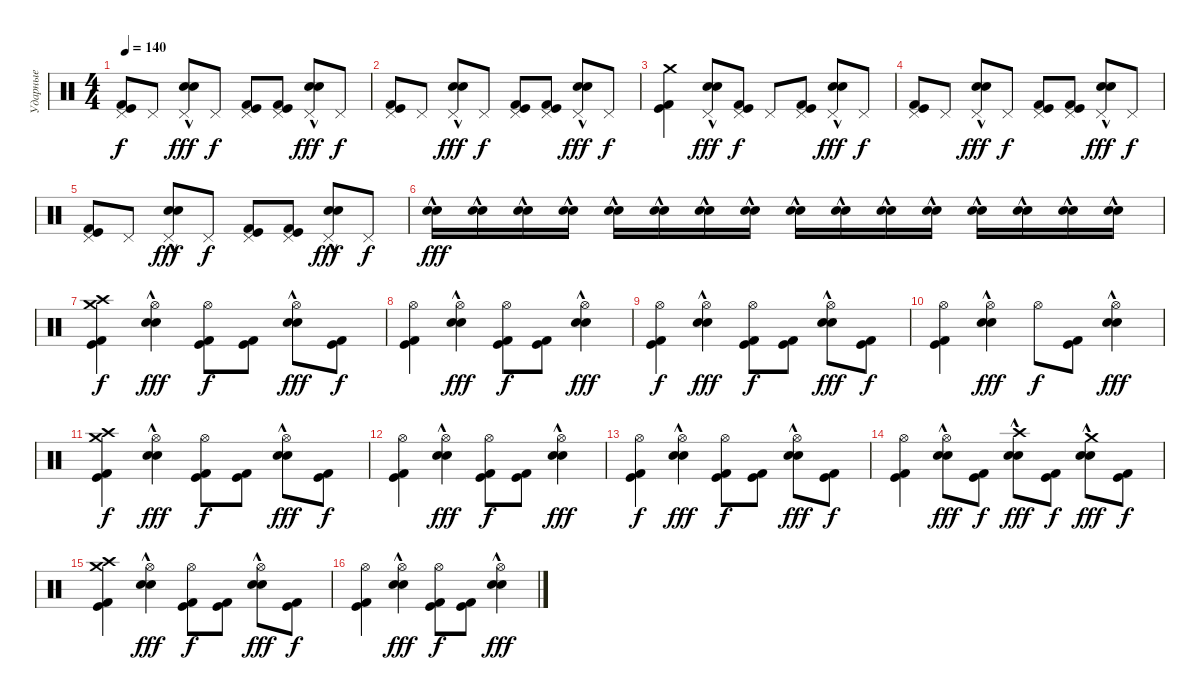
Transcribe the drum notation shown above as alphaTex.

\track ("Ударные" "Ударные") {instrument percussion}
\staff {score}
\articulation defaults
\ts (4 4)
\tempo 140
\clef neutral
\ks c
("Pedal Hi-Hat (hit)" "Kick (hit)" "Kick (hit) 2").8{dy f} "Pedal Hi-Hat (hit)".8 ("Pedal Hi-Hat (hit)" "Snare (hit) 2"{hac} "Electric Snare (hit)"{hac}).8{dy fff} "Pedal Hi-Hat (hit)".8{dy f} ("Pedal Hi-Hat (hit)" "Kick (hit)" "Kick (hit) 2").8 ("Pedal Hi-Hat (hit)" "Kick (hit)" "Kick (hit) 2").8 ("Pedal Hi-Hat (hit)" "Snare (hit) 2"{hac} "Electric Snare (hit)"{hac}).8{dy fff} "Pedal Hi-Hat (hit)".8{dy f} |
("Pedal Hi-Hat (hit)" "Kick (hit)" "Kick (hit) 2").8 "Pedal Hi-Hat (hit)".8 ("Pedal Hi-Hat (hit)" "Snare (hit) 2"{hac} "Electric Snare (hit)"{hac}).8{dy fff} "Pedal Hi-Hat (hit)".8{dy f} ("Pedal Hi-Hat (hit)" "Kick (hit)" "Kick (hit) 2").8 ("Pedal Hi-Hat (hit)" "Kick (hit)" "Kick (hit) 2").8 ("Pedal Hi-Hat (hit)" "Snare (hit) 2"{hac} "Electric Snare (hit)"{hac}).8{dy fff} "Pedal Hi-Hat (hit)".8{dy f} |
("Crash medium (hit)" "Kick (hit)" "Kick (hit) 2").4 ("Pedal Hi-Hat (hit)" "Snare (hit) 2"{hac} "Electric Snare (hit)"{hac}).8{dy fff} ("Pedal Hi-Hat (hit)" "Kick (hit)" "Kick (hit) 2").8{dy f} "Pedal Hi-Hat (hit)".8 ("Pedal Hi-Hat (hit)" "Kick (hit)" "Kick (hit) 2").8 ("Pedal Hi-Hat (hit)" "Snare (hit) 2"{hac} "Electric Snare (hit)"{hac}).8{dy fff} "Pedal Hi-Hat (hit)".8{dy f} |
("Pedal Hi-Hat (hit)" "Kick (hit)" "Kick (hit) 2").8 "Pedal Hi-Hat (hit)".8 ("Pedal Hi-Hat (hit)" "Snare (hit) 2"{hac} "Electric Snare (hit)"{hac}).8{dy fff} "Pedal Hi-Hat (hit)".8{dy f} ("Pedal Hi-Hat (hit)" "Kick (hit)" "Kick (hit) 2").8 ("Pedal Hi-Hat (hit)" "Kick (hit)" "Kick (hit) 2").8 ("Pedal Hi-Hat (hit)" "Snare (hit) 2"{hac} "Electric Snare (hit)"{hac}).8{dy fff} "Pedal Hi-Hat (hit)".8{dy f} |
("Pedal Hi-Hat (hit)" "Kick (hit)" "Kick (hit) 2").8 "Pedal Hi-Hat (hit)".8 ("Pedal Hi-Hat (hit)" "Snare (hit) 2"{hac} "Electric Snare (hit)"{hac}).8{dy fff} "Pedal Hi-Hat (hit)".8{dy f} ("Pedal Hi-Hat (hit)" "Kick (hit)" "Kick (hit) 2").8 ("Pedal Hi-Hat (hit)" "Kick (hit)" "Kick (hit) 2").8 ("Pedal Hi-Hat (hit)" "Snare (hit) 2"{hac} "Electric Snare (hit)"{hac}).8{dy fff} "Pedal Hi-Hat (hit)".8{dy f} |
("Snare (hit) 2"{hac} "Electric Snare (hit)"{hac}).16{dy fff} ("Snare (hit) 2"{hac} "Electric Snare (hit)"{hac}).16 ("Snare (hit) 2"{hac} "Electric Snare (hit)"{hac}).16 ("Snare (hit) 2"{hac} "Electric Snare (hit)"{hac}).16 ("Snare (hit) 2"{hac} "Electric Snare (hit)"{hac}).16 ("Snare (hit) 2"{hac} "Electric Snare (hit)"{hac}).16 ("Snare (hit) 2"{hac} "Electric Snare (hit)"{hac}).16 ("Snare (hit) 2"{hac} "Electric Snare (hit)"{hac}).16 ("Snare (hit) 2"{hac} "Electric Snare (hit)"{hac}).16 ("Snare (hit) 2"{hac} "Electric Snare (hit)"{hac}).16 ("Snare (hit) 2"{hac} "Electric Snare (hit)"{hac}).16 ("Snare (hit) 2"{hac} "Electric Snare (hit)"{hac}).16 ("Snare (hit) 2"{hac} "Electric Snare (hit)"{hac}).16 ("Snare (hit) 2"{hac} "Electric Snare (hit)"{hac}).16 ("Snare (hit) 2"{hac} "Electric Snare (hit)"{hac}).16 ("Snare (hit) 2"{hac} "Electric Snare (hit)"{hac}).16 |
("Crash high (hit)" "Kick (hit)" "Kick (hit) 2" "Crash medium (hit)").4{dy f} ("Hi-Hat (open)" "Snare (hit) 2"{hac} "Electric Snare (hit)"{hac}).4{dy fff} ("Hi-Hat (open)" "Kick (hit)" "Kick (hit) 2").8{dy f} ("Kick (hit)" "Kick (hit) 2").8 ("Hi-Hat (open)" "Snare (hit) 2"{hac} "Electric Snare (hit)"{hac}).8{dy fff} ("Kick (hit)" "Kick (hit) 2").8{dy f} |
("Hi-Hat (open)" "Kick (hit)" "Kick (hit) 2").4 ("Hi-Hat (open)" "Snare (hit) 2"{hac} "Electric Snare (hit)"{hac}).4{dy fff} ("Hi-Hat (open)" "Kick (hit)" "Kick (hit) 2").8{dy f} ("Kick (hit)" "Kick (hit) 2").8 ("Hi-Hat (open)" "Snare (hit) 2"{hac} "Electric Snare (hit)"{hac}).4{dy fff} |
("Hi-Hat (open)" "Kick (hit)" "Kick (hit) 2").4{dy f} ("Hi-Hat (open)" "Snare (hit) 2"{hac} "Electric Snare (hit)"{hac}).4{dy fff} ("Hi-Hat (open)" "Kick (hit)" "Kick (hit) 2").8{dy f} ("Kick (hit)" "Kick (hit) 2").8 ("Hi-Hat (open)" "Snare (hit) 2"{hac} "Electric Snare (hit)"{hac}).8{dy fff} ("Kick (hit)" "Kick (hit) 2").8{dy f} |
("Hi-Hat (open)" "Kick (hit)" "Kick (hit) 2").4 ("Hi-Hat (open)" "Snare (hit) 2"{hac} "Electric Snare (hit)"{hac}).4{dy fff} "Hi-Hat (open)".8{dy f} ("Kick (hit)" "Kick (hit) 2").8 ("Hi-Hat (open)" "Snare (hit) 2"{hac} "Electric Snare (hit)"{hac}).4{dy fff} |
("Crash high (hit)" "Kick (hit)" "Kick (hit) 2" "Crash medium (hit)").4{dy f} ("Hi-Hat (open)" "Snare (hit) 2"{hac} "Electric Snare (hit)"{hac}).4{dy fff} ("Hi-Hat (open)" "Kick (hit)" "Kick (hit) 2").8{dy f} ("Kick (hit)" "Kick (hit) 2").8 ("Hi-Hat (open)" "Snare (hit) 2"{hac} "Electric Snare (hit)"{hac}).8{dy fff} ("Kick (hit)" "Kick (hit) 2").8{dy f} |
("Hi-Hat (open)" "Kick (hit)" "Kick (hit) 2").4 ("Hi-Hat (open)" "Snare (hit) 2"{hac} "Electric Snare (hit)"{hac}).4{dy fff} ("Hi-Hat (open)" "Kick (hit)" "Kick (hit) 2").8{dy f} ("Kick (hit)" "Kick (hit) 2").8 ("Hi-Hat (open)" "Snare (hit) 2"{hac} "Electric Snare (hit)"{hac}).4{dy fff} |
("Hi-Hat (open)" "Kick (hit)" "Kick (hit) 2").4{dy f} ("Hi-Hat (open)" "Snare (hit) 2"{hac} "Electric Snare (hit)"{hac}).4{dy fff} ("Hi-Hat (open)" "Kick (hit)" "Kick (hit) 2").8{dy f} ("Kick (hit)" "Kick (hit) 2").8 ("Hi-Hat (open)" "Snare (hit) 2"{hac} "Electric Snare (hit)"{hac}).8{dy fff} ("Kick (hit)" "Kick (hit) 2").8{dy f} |
("Hi-Hat (open)" "Kick (hit)" "Kick (hit) 2").4 ("Hi-Hat (open)" "Snare (hit) 2"{hac} "Electric Snare (hit)"{hac}).8{dy fff} ("Kick (hit)" "Kick (hit) 2").8{dy f} ("Crash high (hit)" "Snare (hit) 2"{hac} "Electric Snare (hit)"{hac}).8{dy fff} ("Kick (hit)" "Kick (hit) 2").8{dy f} ("Crash medium (hit)" "Snare (hit) 2"{hac} "Electric Snare (hit)"{hac}).8{dy fff} ("Kick (hit)" "Kick (hit) 2").8{dy f} |
("Crash high (hit)" "Kick (hit)" "Kick (hit) 2" "Crash medium (hit)").4 ("Hi-Hat (open)" "Snare (hit) 2"{hac} "Electric Snare (hit)"{hac}).4{dy fff} ("Hi-Hat (open)" "Kick (hit)" "Kick (hit) 2").8{dy f} ("Kick (hit)" "Kick (hit) 2").8 ("Hi-Hat (open)" "Snare (hit) 2"{hac} "Electric Snare (hit)"{hac}).8{dy fff} ("Kick (hit)" "Kick (hit) 2").8{dy f} |
("Hi-Hat (open)" "Kick (hit)" "Kick (hit) 2").4 ("Hi-Hat (open)" "Snare (hit) 2"{hac} "Electric Snare (hit)"{hac}).4{dy fff} ("Hi-Hat (open)" "Kick (hit)" "Kick (hit) 2").8{dy f} ("Kick (hit)" "Kick (hit) 2").8 ("Hi-Hat (open)" "Snare (hit) 2"{hac} "Electric Snare (hit)"{hac}).4{dy fff}
